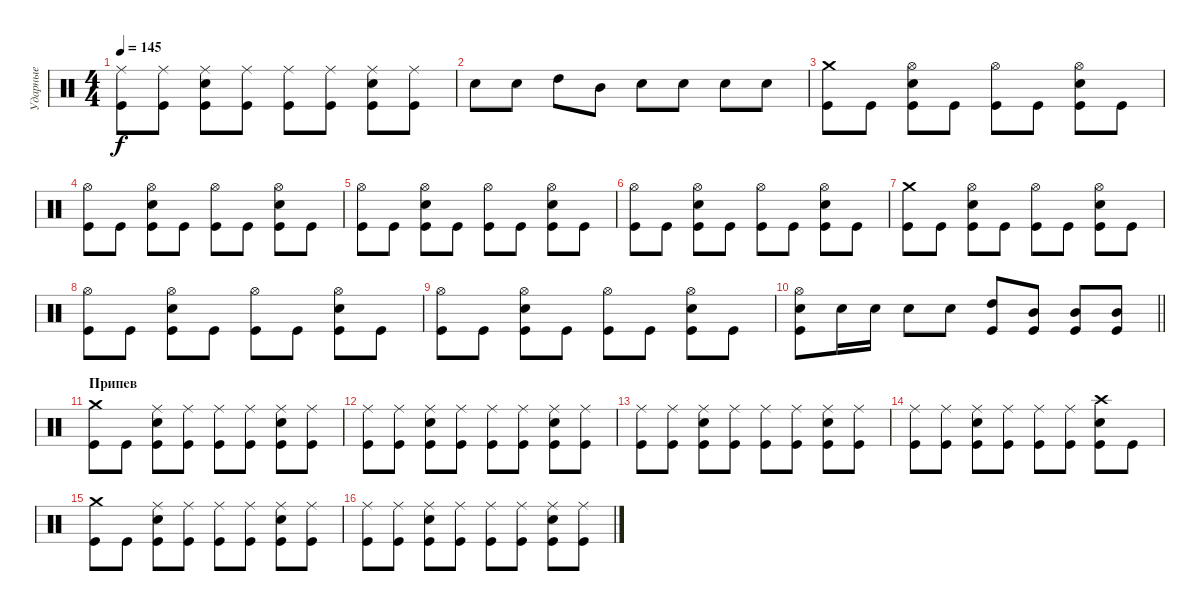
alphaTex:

\track ("Ударные" "Ударные") {instrument percussion}
\staff {score}
\articulation defaults
\ts (4 4)
\tempo 145
\clef neutral
\ks c
("Kick (hit)" "Ride (middle)").8{dy f} ("Kick (hit)" "Ride (middle)").8 ("Kick (hit)" "Snare (hit) 2" "Ride (middle)").8 ("Kick (hit)" "Ride (middle)").8 ("Kick (hit)" "Ride (middle)").8 ("Kick (hit)" "Ride (middle)").8 ("Kick (hit)" "Snare (hit) 2" "Ride (middle)").8 ("Kick (hit)" "Ride (middle)").8 |
"Snare (hit) 2".8 "Snare (hit) 2".8 "High Tom (hit)".8 "Mid Tom (hit)".8 "Snare (hit) 2".8 "Snare (hit) 2".8 "Snare (hit) 2".8 "Snare (hit) 2".8 |
("Kick (hit)" "Crash medium (hit)").8 "Kick (hit)".8 ("Kick (hit)" "Snare (hit) 2" "Hi-Hat (open)").8 "Kick (hit)".8 ("Kick (hit)" "Hi-Hat (open)").8 "Kick (hit)".8 ("Kick (hit)" "Snare (hit) 2" "Hi-Hat (open)").8 "Kick (hit)".8 |
("Kick (hit)" "Hi-Hat (open)").8 "Kick (hit)".8 ("Kick (hit)" "Snare (hit) 2" "Hi-Hat (open)").8 "Kick (hit)".8 ("Kick (hit)" "Hi-Hat (open)").8 "Kick (hit)".8 ("Kick (hit)" "Snare (hit) 2" "Hi-Hat (open)").8 "Kick (hit)".8 |
("Kick (hit)" "Hi-Hat (open)").8 "Kick (hit)".8 ("Kick (hit)" "Snare (hit) 2" "Hi-Hat (open)").8 "Kick (hit)".8 ("Kick (hit)" "Hi-Hat (open)").8 "Kick (hit)".8 ("Kick (hit)" "Snare (hit) 2" "Hi-Hat (open)").8 "Kick (hit)".8 |
("Kick (hit)" "Hi-Hat (open)").8 "Kick (hit)".8 ("Kick (hit)" "Snare (hit) 2" "Hi-Hat (open)").8 "Kick (hit)".8 ("Kick (hit)" "Hi-Hat (open)").8 "Kick (hit)".8 ("Kick (hit)" "Snare (hit) 2" "Hi-Hat (open)").8 "Kick (hit)".8 |
("Kick (hit)" "Crash medium (hit)").8 "Kick (hit)".8 ("Kick (hit)" "Snare (hit) 2" "Hi-Hat (open)").8 "Kick (hit)".8 ("Kick (hit)" "Hi-Hat (open)").8 "Kick (hit)".8 ("Kick (hit)" "Snare (hit) 2" "Hi-Hat (open)").8 "Kick (hit)".8 |
("Kick (hit)" "Hi-Hat (open)").8 "Kick (hit)".8 ("Kick (hit)" "Snare (hit) 2" "Hi-Hat (open)").8 "Kick (hit)".8 ("Kick (hit)" "Hi-Hat (open)").8 "Kick (hit)".8 ("Kick (hit)" "Snare (hit) 2" "Hi-Hat (open)").8 "Kick (hit)".8 |
("Kick (hit)" "Hi-Hat (open)").8 "Kick (hit)".8 ("Kick (hit)" "Snare (hit) 2" "Hi-Hat (open)").8 "Kick (hit)".8 ("Kick (hit)" "Hi-Hat (open)").8 "Kick (hit)".8 ("Kick (hit)" "Snare (hit) 2" "Hi-Hat (open)").8 "Kick (hit)".8 |
\barLineRight lightlight
("Kick (hit)" "Snare (hit) 2" "Hi-Hat (open)").8 "Snare (hit) 2".16 "Snare (hit) 2".16 "Snare (hit) 2".8 "Snare (hit) 2".8 ("Kick (hit)" "High Tom (hit)").8 ("Kick (hit)" "Mid Tom (hit)").8 ("Kick (hit)" "Mid Tom (hit)").8 ("Kick (hit)" "Mid Tom (hit)").8 |
\section ("" "Припев")
("Kick (hit)" "Crash medium (hit)").8 "Kick (hit)".8 ("Kick (hit)" "Snare (hit) 2" "Ride (middle)").8 ("Kick (hit)" "Ride (middle)").8 ("Kick (hit)" "Ride (middle)").8 ("Kick (hit)" "Ride (middle)").8 ("Kick (hit)" "Snare (hit) 2" "Ride (middle)").8 ("Kick (hit)" "Ride (middle)").8 |
("Kick (hit)" "Ride (middle)").8 ("Kick (hit)" "Ride (middle)").8 ("Kick (hit)" "Snare (hit) 2" "Ride (middle)").8 ("Kick (hit)" "Ride (middle)").8 ("Kick (hit)" "Ride (middle)").8 ("Kick (hit)" "Ride (middle)").8 ("Kick (hit)" "Snare (hit) 2" "Ride (middle)").8 ("Kick (hit)" "Ride (middle)").8 |
("Kick (hit)" "Ride (middle)").8 ("Kick (hit)" "Ride (middle)").8 ("Kick (hit)" "Snare (hit) 2" "Ride (middle)").8 ("Kick (hit)" "Ride (middle)").8 ("Kick (hit)" "Ride (middle)").8 ("Kick (hit)" "Ride (middle)").8 ("Kick (hit)" "Snare (hit) 2" "Ride (middle)").8 ("Kick (hit)" "Ride (middle)").8 |
("Kick (hit)" "Ride (middle)").8 ("Kick (hit)" "Ride (middle)").8 ("Kick (hit)" "Snare (hit) 2" "Ride (middle)").8 ("Kick (hit)" "Ride (middle)").8 ("Kick (hit)" "Ride (middle)").8 ("Kick (hit)" "Ride (middle)").8 ("Kick (hit)" "Snare (hit) 2" "Crash high (hit)").8 "Kick (hit)".8 |
("Kick (hit)" "Crash medium (hit)").8 "Kick (hit)".8 ("Kick (hit)" "Snare (hit) 2" "Ride (middle)").8 ("Kick (hit)" "Ride (middle)").8 ("Kick (hit)" "Ride (middle)").8 ("Kick (hit)" "Ride (middle)").8 ("Kick (hit)" "Snare (hit) 2" "Ride (middle)").8 ("Kick (hit)" "Ride (middle)").8 |
("Kick (hit)" "Ride (middle)").8 ("Kick (hit)" "Ride (middle)").8 ("Kick (hit)" "Snare (hit) 2" "Ride (middle)").8 ("Kick (hit)" "Ride (middle)").8 ("Kick (hit)" "Ride (middle)").8 ("Kick (hit)" "Ride (middle)").8 ("Kick (hit)" "Snare (hit) 2" "Ride (middle)").8 ("Kick (hit)" "Ride (middle)").8
